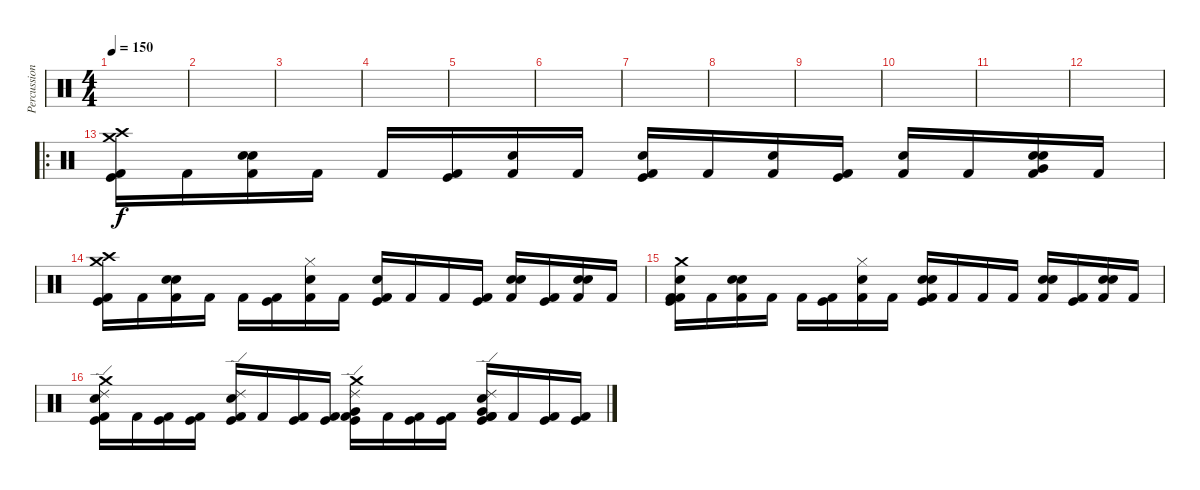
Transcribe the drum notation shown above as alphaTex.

\track ("Percussion" "Percussion") {instrument percussion}
\staff {score}
\articulation defaults
\ts (4 4)
\tempo 150
\clef neutral
\ks c
|
|
|
|
|
|
|
|
|
|
|
|
\ro
("Crash high (hit)" "Crash medium (hit)" "Kick (hit) 2" "Kick (hit)").16 "Kick (hit) 2".16 ("Kick (hit) 2" "Electric Snare (hit)" "Snare (hit) 2").16 "Kick (hit) 2".16 "Kick (hit) 2".16 ("Kick (hit) 2" "Kick (hit)").16 ("Kick (hit) 2" "Snare (hit) 2").16 "Kick (hit) 2".16 ("Kick (hit) 2" "Kick (hit)" "Snare (hit) 2").16 "Kick (hit) 2".16 ("Kick (hit) 2" "Electric Snare (hit)").16 ("Kick (hit) 2" "Kick (hit)").16 ("Kick (hit) 2" "Snare (hit) 2").16 "Kick (hit) 2".16 ("Kick (hit) 2" "Electric Snare (hit)" "Snare (hit) 2" "Very Low Tom (hit)").16 "Kick (hit) 2".16 |
("Crash medium (hit)" "Crash high (hit)" "Kick (hit) 2" "Kick (hit)").16 "Kick (hit) 2".16 ("Kick (hit) 2" "Electric Snare (hit)" "Snare (hit) 2").16 "Kick (hit) 2".16 "Kick (hit) 2".16 ("Kick (hit) 2" "Kick (hit)").16 ("Kick (hit) 2" "Hi-Hat (closed)" "Snare (hit) 2").16 "Kick (hit) 2".16 ("Kick (hit) 2" "Kick (hit)" "Snare (hit) 2").16 "Kick (hit) 2".16 "Kick (hit) 2".16 ("Kick (hit) 2" "Kick (hit)").16 ("Kick (hit) 2" "Electric Snare (hit)" "Snare (hit) 2").16 ("Kick (hit) 2" "Kick (hit)").16 ("Kick (hit) 2" "Electric Snare (hit)" "Snare (hit) 2").16 "Kick (hit) 2".16 |
("Kick (hit) 2" "Kick (hit) 2" "Kick (hit)" "Snare (hit) 2" "Crash medium (hit)").16 "Kick (hit) 2".16 ("Kick (hit) 2" "Electric Snare (hit)" "Snare (hit) 2").16 "Kick (hit) 2".16 "Kick (hit) 2".16 ("Kick (hit) 2" "Kick (hit)").16 ("Kick (hit) 2" "Hi-Hat (closed)" "Snare (hit) 2").16 "Kick (hit) 2".16 ("Kick (hit) 2" "Electric Snare (hit)" "Kick (hit)" "Snare (hit) 2").16 "Kick (hit) 2".16 "Kick (hit) 2".16 "Kick (hit) 2".16 ("Kick (hit) 2" "Electric Snare (hit)" "Snare (hit) 2").16 ("Kick (hit) 2" "Kick (hit)").16 ("Kick (hit) 2" "Electric Snare (hit)" "Snare (hit) 2").16 "Kick (hit) 2".16 |
("Ride (edge) 2" "Kick (hit) 2" "Kick (hit)" "Snare (hit) 2" "Crash medium (hit)").16 "Kick (hit) 2".16 ("Kick (hit) 2" "Kick (hit)").16 ("Kick (hit) 2" "Kick (hit)").16 ("Kick (hit) 2" "Snare (hit) 2" "Ride (edge) 2" "Kick (hit)").16 "Kick (hit) 2".16 ("Kick (hit) 2" "Kick (hit)").16 ("Kick (hit) 2" "Kick (hit)").16 ("Ride (edge) 2" "Kick (hit) 2" "Kick (hit)" "Crash medium (hit)" "Very Low Tom (hit)").16 "Kick (hit) 2".16 ("Kick (hit) 2" "Kick (hit)").16 ("Kick (hit) 2" "Kick (hit)").16 ("Kick (hit) 2" "Snare (hit) 2" "Ride (edge) 2" "Kick (hit) 2" "Kick (hit)" "Very Low Tom (hit)").16 "Kick (hit) 2".16 ("Kick (hit) 2" "Kick (hit)").16 ("Kick (hit) 2" "Kick (hit)").16
